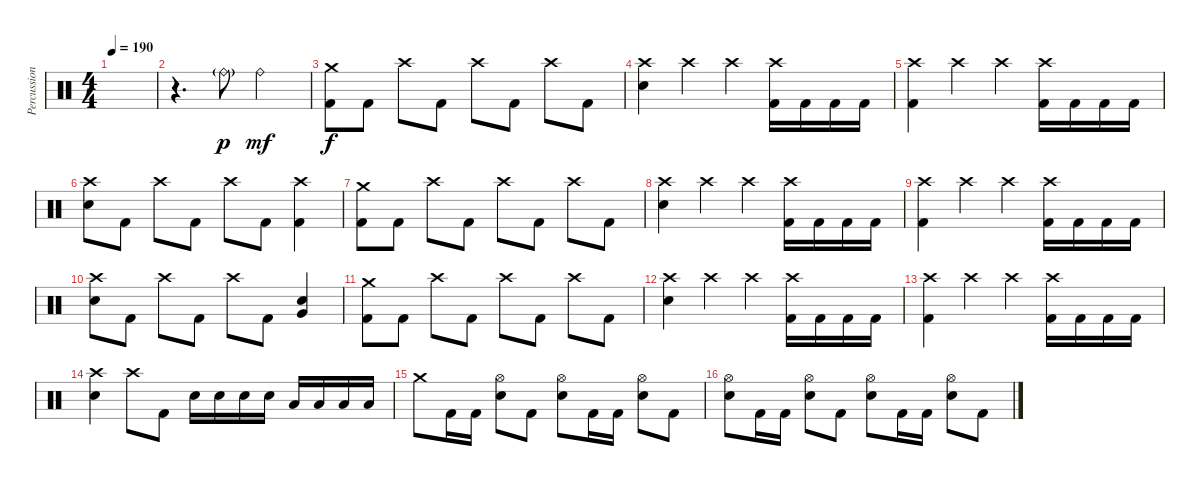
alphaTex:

\track ("Percussions" "Percussion") {instrument percussion}
\staff {score}
\articulation defaults
\ts (4 4)
\tempo 190
\clef neutral
\ks c
|
r.4{d} "Ride (bell)"{g}.8{dy p} "Ride (bell)".2{dy mf} |
("Crash medium (hit)" "Kick (hit) 2").8{dy f} "Kick (hit) 2".8 "Crash high (hit)".8 "Kick (hit) 2".8 "Crash high (hit)".8 "Kick (hit) 2".8 "Crash high (hit)".8 "Kick (hit) 2".8 |
("Crash high (hit)" "Electric Snare (hit)").4 "Crash high (hit)".4 "Crash high (hit)".4 ("Crash high (hit)" "Kick (hit) 2").16 "Kick (hit) 2".16 "Kick (hit) 2".16 "Kick (hit) 2".16 |
("Crash high (hit)" "Kick (hit) 2").4 "Crash high (hit)".4 "Crash high (hit)".4 ("Crash high (hit)" "Kick (hit) 2").16 "Kick (hit) 2".16 "Kick (hit) 2".16 "Kick (hit) 2".16 |
("Crash high (hit)" "Electric Snare (hit)").8 "Kick (hit) 2".8 "Crash high (hit)".8 "Kick (hit) 2".8 "Crash high (hit)".8 "Kick (hit) 2".8 ("Crash high (hit)" "Kick (hit) 2").4 |
("Crash medium (hit)" "Kick (hit) 2").8 "Kick (hit) 2".8 "Crash high (hit)".8 "Kick (hit) 2".8 "Crash high (hit)".8 "Kick (hit) 2".8 "Crash high (hit)".8 "Kick (hit) 2".8 |
("Crash high (hit)" "Electric Snare (hit)").4 "Crash high (hit)".4 "Crash high (hit)".4 ("Crash high (hit)" "Kick (hit) 2").16 "Kick (hit) 2".16 "Kick (hit) 2".16 "Kick (hit) 2".16 |
("Crash high (hit)" "Kick (hit) 2").4 "Crash high (hit)".4 "Crash high (hit)".4 ("Crash high (hit)" "Kick (hit) 2").16 "Kick (hit) 2".16 "Kick (hit) 2".16 "Kick (hit) 2".16 |
("Crash high (hit)" "Electric Snare (hit)").8 "Kick (hit) 2".8 "Crash high (hit)".8 "Kick (hit) 2".8 "Crash high (hit)".8 "Kick (hit) 2".8 ("Electric Snare (hit)" "Very Low Tom (hit)").4 |
("Crash medium (hit)" "Kick (hit) 2").8 "Kick (hit) 2".8 "Crash high (hit)".8 "Kick (hit) 2".8 "Crash high (hit)".8 "Kick (hit) 2".8 "Crash high (hit)".8 "Kick (hit) 2".8 |
("Crash high (hit)" "Electric Snare (hit)").4 "Crash high (hit)".4 "Crash high (hit)".4 ("Crash high (hit)" "Kick (hit) 2").16 "Kick (hit) 2".16 "Kick (hit) 2".16 "Kick (hit) 2".16 |
("Crash high (hit)" "Kick (hit) 2").4 "Crash high (hit)".4 "Crash high (hit)".4 ("Crash high (hit)" "Kick (hit) 2").16 "Kick (hit) 2".16 "Kick (hit) 2".16 "Kick (hit) 2".16 |
("Crash high (hit)" "Electric Snare (hit)").4 "Crash high (hit)".8 "Kick (hit) 2".8 "Electric Snare (hit)".16 "Electric Snare (hit)".16 "Electric Snare (hit)".16 "Electric Snare (hit)".16 "Low Tom (hit)".16 "Low Tom (hit)".16 "Low Floor Tom (hit)".16 "Low Floor Tom (hit)".16 |
"Crash medium (hit)".8 "Kick (hit) 2".16 "Kick (hit) 2".16 ("Hi-Hat (open)" "Electric Snare (hit)").8 "Kick (hit) 2".8 ("Hi-Hat (open)" "Electric Snare (hit)").8 "Kick (hit) 2".16 "Kick (hit) 2".16 ("Hi-Hat (open)" "Electric Snare (hit)").8 "Kick (hit) 2".8 |
("Hi-Hat (open)" "Electric Snare (hit)").8 "Kick (hit) 2".16 "Kick (hit) 2".16 ("Hi-Hat (open)" "Electric Snare (hit)").8 "Kick (hit) 2".8 ("Hi-Hat (open)" "Electric Snare (hit)").8 "Kick (hit) 2".16 "Kick (hit) 2".16 ("Hi-Hat (open)" "Electric Snare (hit)").8 "Kick (hit) 2".8
